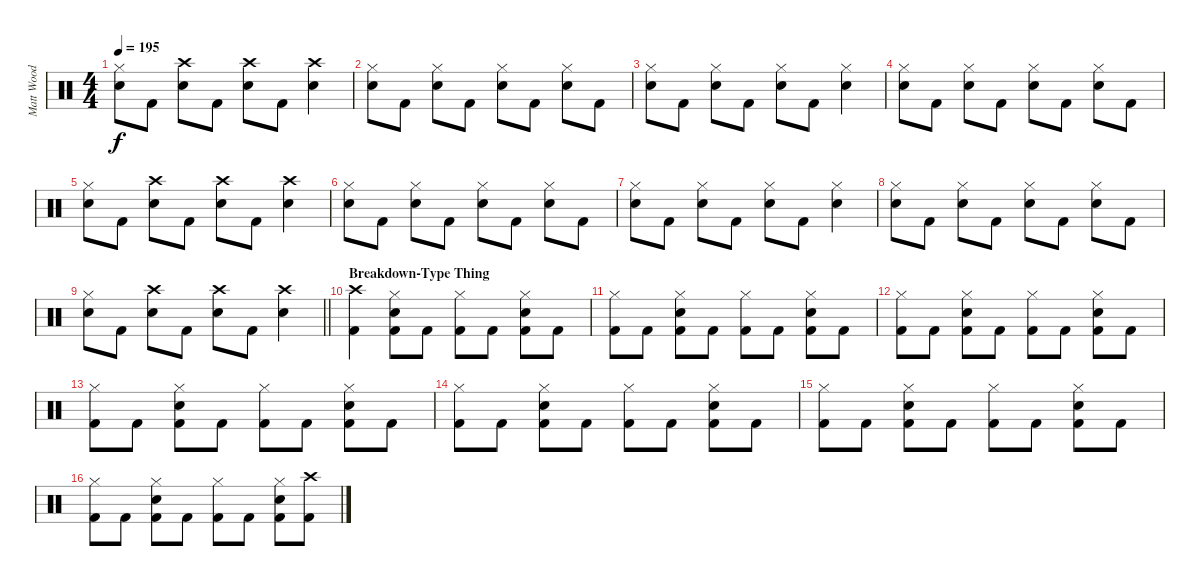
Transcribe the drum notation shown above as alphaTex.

\track ("Matt Wood" "Matt Wood") {instrument percussion}
\staff {score}
\articulation defaults
\ts (4 4)
\tempo 195
\clef neutral
\ks c
("Hi-Hat (closed)" "Snare (hit) 2").8{dy f} "Kick (hit) 2".8 ("Crash high (hit)" "Snare (hit) 2").8 "Kick (hit) 2".8 ("Crash high (hit)" "Snare (hit) 2").8 "Kick (hit) 2".8 ("Crash high (hit)" "Snare (hit) 2").4 |
("Hi-Hat (closed)" "Snare (hit) 2").8 "Kick (hit) 2".8 ("Hi-Hat (closed)" "Snare (hit) 2").8 "Kick (hit) 2".8 ("Hi-Hat (closed)" "Snare (hit) 2").8 "Kick (hit) 2".8 ("Hi-Hat (closed)" "Snare (hit) 2").8 "Kick (hit) 2".8 |
("Hi-Hat (closed)" "Snare (hit) 2").8 "Kick (hit) 2".8 ("Hi-Hat (closed)" "Snare (hit) 2").8 "Kick (hit) 2".8 ("Hi-Hat (closed)" "Snare (hit) 2").8 "Kick (hit) 2".8 ("Hi-Hat (closed)" "Snare (hit) 2").4 |
("Hi-Hat (closed)" "Snare (hit) 2").8 "Kick (hit) 2".8 ("Hi-Hat (closed)" "Snare (hit) 2").8 "Kick (hit) 2".8 ("Hi-Hat (closed)" "Snare (hit) 2").8 "Kick (hit) 2".8 ("Hi-Hat (closed)" "Snare (hit) 2").8 "Kick (hit) 2".8 |
("Hi-Hat (closed)" "Snare (hit) 2").8 "Kick (hit) 2".8 ("Crash high (hit)" "Snare (hit) 2").8 "Kick (hit) 2".8 ("Crash high (hit)" "Snare (hit) 2").8 "Kick (hit) 2".8 ("Crash high (hit)" "Snare (hit) 2").4 |
("Hi-Hat (closed)" "Snare (hit) 2").8 "Kick (hit) 2".8 ("Hi-Hat (closed)" "Snare (hit) 2").8 "Kick (hit) 2".8 ("Hi-Hat (closed)" "Snare (hit) 2").8 "Kick (hit) 2".8 ("Hi-Hat (closed)" "Snare (hit) 2").8 "Kick (hit) 2".8 |
("Hi-Hat (closed)" "Snare (hit) 2").8 "Kick (hit) 2".8 ("Hi-Hat (closed)" "Snare (hit) 2").8 "Kick (hit) 2".8 ("Hi-Hat (closed)" "Snare (hit) 2").8 "Kick (hit) 2".8 ("Hi-Hat (closed)" "Snare (hit) 2").4 |
("Hi-Hat (closed)" "Snare (hit) 2").8 "Kick (hit) 2".8 ("Hi-Hat (closed)" "Snare (hit) 2").8 "Kick (hit) 2".8 ("Hi-Hat (closed)" "Snare (hit) 2").8 "Kick (hit) 2".8 ("Hi-Hat (closed)" "Snare (hit) 2").8 "Kick (hit) 2".8 |
\barLineRight lightlight
("Hi-Hat (closed)" "Snare (hit) 2").8 "Kick (hit) 2".8 ("Crash high (hit)" "Snare (hit) 2").8 "Kick (hit) 2".8 ("Crash high (hit)" "Snare (hit) 2").8 "Kick (hit) 2".8 ("Crash high (hit)" "Snare (hit) 2").4 |
\section ("" "Breakdown-Type Thing")
("Crash high (hit)" "Kick (hit) 2").4 ("Hi-Hat (closed)" "Snare (hit) 2" "Kick (hit) 2").8 "Kick (hit) 2".8 ("Hi-Hat (closed)" "Kick (hit) 2").8 "Kick (hit) 2".8 ("Hi-Hat (closed)" "Snare (hit) 2" "Kick (hit) 2").8 "Kick (hit) 2".8 |
("Hi-Hat (closed)" "Kick (hit) 2").8 "Kick (hit) 2".8 ("Hi-Hat (closed)" "Snare (hit) 2" "Kick (hit) 2").8 "Kick (hit) 2".8 ("Hi-Hat (closed)" "Kick (hit) 2").8 "Kick (hit) 2".8 ("Hi-Hat (closed)" "Snare (hit) 2" "Kick (hit) 2").8 "Kick (hit) 2".8 |
("Hi-Hat (closed)" "Kick (hit) 2").8 "Kick (hit) 2".8 ("Hi-Hat (closed)" "Snare (hit) 2" "Kick (hit) 2").8 "Kick (hit) 2".8 ("Hi-Hat (closed)" "Kick (hit) 2").8 "Kick (hit) 2".8 ("Hi-Hat (closed)" "Snare (hit) 2" "Kick (hit) 2").8 "Kick (hit) 2".8 |
("Hi-Hat (closed)" "Kick (hit) 2").8 "Kick (hit) 2".8 ("Hi-Hat (closed)" "Snare (hit) 2" "Kick (hit) 2").8 "Kick (hit) 2".8 ("Hi-Hat (closed)" "Kick (hit) 2").8 "Kick (hit) 2".8 ("Hi-Hat (closed)" "Snare (hit) 2" "Kick (hit) 2").8 "Kick (hit) 2".8 |
("Hi-Hat (closed)" "Kick (hit) 2").8 "Kick (hit) 2".8 ("Hi-Hat (closed)" "Snare (hit) 2" "Kick (hit) 2").8 "Kick (hit) 2".8 ("Hi-Hat (closed)" "Kick (hit) 2").8 "Kick (hit) 2".8 ("Hi-Hat (closed)" "Snare (hit) 2" "Kick (hit) 2").8 "Kick (hit) 2".8 |
("Hi-Hat (closed)" "Kick (hit) 2").8 "Kick (hit) 2".8 ("Hi-Hat (closed)" "Snare (hit) 2" "Kick (hit) 2").8 "Kick (hit) 2".8 ("Hi-Hat (closed)" "Kick (hit) 2").8 "Kick (hit) 2".8 ("Hi-Hat (closed)" "Snare (hit) 2" "Kick (hit) 2").8 "Kick (hit) 2".8 |
("Hi-Hat (closed)" "Kick (hit) 2").8 "Kick (hit) 2".8 ("Hi-Hat (closed)" "Snare (hit) 2" "Kick (hit) 2").8 "Kick (hit) 2".8 ("Hi-Hat (closed)" "Kick (hit) 2").8 "Kick (hit) 2".8 ("Hi-Hat (closed)" "Snare (hit) 2" "Kick (hit) 2").8 ("Crash high (hit)" "Kick (hit) 2").8
